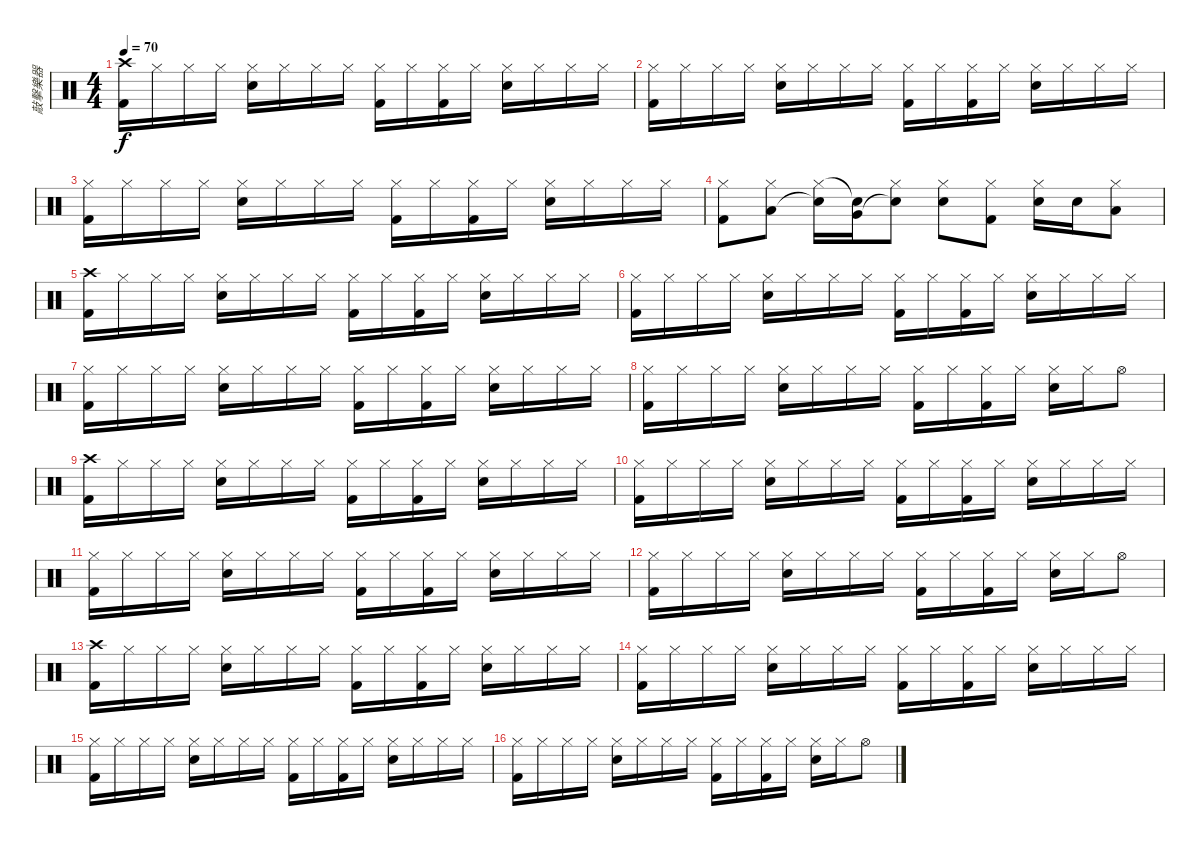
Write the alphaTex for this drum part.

\track ("敲擊樂器" "敲擊樂器") {instrument percussion}
\staff {score}
\articulation defaults
\ts (4 4)
\tempo 70
\clef neutral
\ks c
("Crash high (hit)" "Kick (hit) 2").16{dy f} "Hi-Hat (closed)".16 "Hi-Hat (closed)".16 "Hi-Hat (closed)".16 ("Hi-Hat (closed)" "Snare (hit) 2").16 "Hi-Hat (closed)".16 "Hi-Hat (closed)".16 "Hi-Hat (closed)".16 ("Hi-Hat (closed)" "Kick (hit) 2").16 "Hi-Hat (closed)".16 ("Hi-Hat (closed)" "Kick (hit) 2").16 "Hi-Hat (closed)".16 ("Hi-Hat (closed)" "Snare (hit) 2").16 "Hi-Hat (closed)".16 "Hi-Hat (closed)".16 "Hi-Hat (closed)".16 |
("Hi-Hat (closed)" "Kick (hit) 2").16 "Hi-Hat (closed)".16 "Hi-Hat (closed)".16 "Hi-Hat (closed)".16 ("Hi-Hat (closed)" "Snare (hit) 2").16 "Hi-Hat (closed)".16 "Hi-Hat (closed)".16 "Hi-Hat (closed)".16 ("Hi-Hat (closed)" "Kick (hit) 2").16 "Hi-Hat (closed)".16 ("Hi-Hat (closed)" "Kick (hit) 2").16 "Hi-Hat (closed)".16 ("Hi-Hat (closed)" "Snare (hit) 2").16 "Hi-Hat (closed)".16 "Hi-Hat (closed)".16 "Hi-Hat (closed)".16 |
("Hi-Hat (closed)" "Kick (hit) 2").16 "Hi-Hat (closed)".16 "Hi-Hat (closed)".16 "Hi-Hat (closed)".16 ("Hi-Hat (closed)" "Snare (hit) 2").16 "Hi-Hat (closed)".16 "Hi-Hat (closed)".16 "Hi-Hat (closed)".16 ("Hi-Hat (closed)" "Kick (hit) 2").16 "Hi-Hat (closed)".16 ("Hi-Hat (closed)" "Kick (hit) 2").16 "Hi-Hat (closed)".16 ("Hi-Hat (closed)" "Snare (hit) 2").16 "Hi-Hat (closed)".16 "Hi-Hat (closed)".16 "Hi-Hat (closed)".16 |
("Hi-Hat (closed)" "Kick (hit) 2").8 ("Hi-Hat (closed)" "Low Tom (hit)").8 ("Hi-Hat (closed)" "Snare (hit)"{t}).16 ("Snare (hit)"{t} "Very Low Tom (hit)").16 ("Hi-Hat (closed)" "Snare (hit)"{t}).8 ("Hi-Hat (closed)" "Snare (hit) 2").8 ("Hi-Hat (closed)" "Kick (hit) 2").8 ("Hi-Hat (closed)" "Snare (hit) 2").16 "Snare (hit) 2".16 ("Hi-Hat (closed)" "Low Tom (hit)").8 |
("Crash high (hit)" "Kick (hit) 2").16 "Hi-Hat (closed)".16 "Hi-Hat (closed)".16 "Hi-Hat (closed)".16 ("Hi-Hat (closed)" "Snare (hit) 2").16 "Hi-Hat (closed)".16 "Hi-Hat (closed)".16 "Hi-Hat (closed)".16 ("Hi-Hat (closed)" "Kick (hit) 2").16 "Hi-Hat (closed)".16 ("Hi-Hat (closed)" "Kick (hit) 2").16 "Hi-Hat (closed)".16 ("Hi-Hat (closed)" "Snare (hit) 2").16 "Hi-Hat (closed)".16 "Hi-Hat (closed)".16 "Hi-Hat (closed)".16 |
("Hi-Hat (closed)" "Kick (hit) 2").16 "Hi-Hat (closed)".16 "Hi-Hat (closed)".16 "Hi-Hat (closed)".16 ("Hi-Hat (closed)" "Snare (hit) 2").16 "Hi-Hat (closed)".16 "Hi-Hat (closed)".16 "Hi-Hat (closed)".16 ("Hi-Hat (closed)" "Kick (hit) 2").16 "Hi-Hat (closed)".16 ("Hi-Hat (closed)" "Kick (hit) 2").16 "Hi-Hat (closed)".16 ("Hi-Hat (closed)" "Snare (hit) 2").16 "Hi-Hat (closed)".16 "Hi-Hat (closed)".16 "Hi-Hat (closed)".16 |
("Hi-Hat (closed)" "Kick (hit) 2").16 "Hi-Hat (closed)".16 "Hi-Hat (closed)".16 "Hi-Hat (closed)".16 ("Hi-Hat (closed)" "Snare (hit) 2").16 "Hi-Hat (closed)".16 "Hi-Hat (closed)".16 "Hi-Hat (closed)".16 ("Hi-Hat (closed)" "Kick (hit) 2").16 "Hi-Hat (closed)".16 ("Hi-Hat (closed)" "Kick (hit) 2").16 "Hi-Hat (closed)".16 ("Hi-Hat (closed)" "Snare (hit) 2").16 "Hi-Hat (closed)".16 "Hi-Hat (closed)".16 "Hi-Hat (closed)".16 |
("Hi-Hat (closed)" "Kick (hit) 2").16 "Hi-Hat (closed)".16 "Hi-Hat (closed)".16 "Hi-Hat (closed)".16 ("Hi-Hat (closed)" "Snare (hit) 2").16 "Hi-Hat (closed)".16 "Hi-Hat (closed)".16 "Hi-Hat (closed)".16 ("Hi-Hat (closed)" "Kick (hit) 2").16 "Hi-Hat (closed)".16 ("Hi-Hat (closed)" "Kick (hit) 2").16 "Hi-Hat (closed)".16 ("Hi-Hat (closed)" "Snare (hit) 2").16 "Hi-Hat (closed)".16 "Hi-Hat (open)".8 |
("Crash high (hit)" "Kick (hit) 2").16 "Hi-Hat (closed)".16 "Hi-Hat (closed)".16 "Hi-Hat (closed)".16 ("Hi-Hat (closed)" "Snare (hit) 2").16 "Hi-Hat (closed)".16 "Hi-Hat (closed)".16 "Hi-Hat (closed)".16 ("Hi-Hat (closed)" "Kick (hit) 2").16 "Hi-Hat (closed)".16 ("Hi-Hat (closed)" "Kick (hit) 2").16 "Hi-Hat (closed)".16 ("Hi-Hat (closed)" "Snare (hit) 2").16 "Hi-Hat (closed)".16 "Hi-Hat (closed)".16 "Hi-Hat (closed)".16 |
("Hi-Hat (closed)" "Kick (hit) 2").16 "Hi-Hat (closed)".16 "Hi-Hat (closed)".16 "Hi-Hat (closed)".16 ("Hi-Hat (closed)" "Snare (hit) 2").16 "Hi-Hat (closed)".16 "Hi-Hat (closed)".16 "Hi-Hat (closed)".16 ("Hi-Hat (closed)" "Kick (hit) 2").16 "Hi-Hat (closed)".16 ("Hi-Hat (closed)" "Kick (hit) 2").16 "Hi-Hat (closed)".16 ("Hi-Hat (closed)" "Snare (hit) 2").16 "Hi-Hat (closed)".16 "Hi-Hat (closed)".16 "Hi-Hat (closed)".16 |
("Hi-Hat (closed)" "Kick (hit) 2").16 "Hi-Hat (closed)".16 "Hi-Hat (closed)".16 "Hi-Hat (closed)".16 ("Hi-Hat (closed)" "Snare (hit) 2").16 "Hi-Hat (closed)".16 "Hi-Hat (closed)".16 "Hi-Hat (closed)".16 ("Hi-Hat (closed)" "Kick (hit) 2").16 "Hi-Hat (closed)".16 ("Hi-Hat (closed)" "Kick (hit) 2").16 "Hi-Hat (closed)".16 ("Hi-Hat (closed)" "Snare (hit) 2").16 "Hi-Hat (closed)".16 "Hi-Hat (closed)".16 "Hi-Hat (closed)".16 |
("Hi-Hat (closed)" "Kick (hit) 2").16 "Hi-Hat (closed)".16 "Hi-Hat (closed)".16 "Hi-Hat (closed)".16 ("Hi-Hat (closed)" "Snare (hit) 2").16 "Hi-Hat (closed)".16 "Hi-Hat (closed)".16 "Hi-Hat (closed)".16 ("Hi-Hat (closed)" "Kick (hit) 2").16 "Hi-Hat (closed)".16 ("Hi-Hat (closed)" "Kick (hit) 2").16 "Hi-Hat (closed)".16 ("Hi-Hat (closed)" "Snare (hit) 2").16 "Hi-Hat (closed)".16 "Hi-Hat (open)".8 |
("Crash high (hit)" "Kick (hit) 2").16 "Hi-Hat (closed)".16 "Hi-Hat (closed)".16 "Hi-Hat (closed)".16 ("Hi-Hat (closed)" "Snare (hit) 2").16 "Hi-Hat (closed)".16 "Hi-Hat (closed)".16 "Hi-Hat (closed)".16 ("Hi-Hat (closed)" "Kick (hit) 2").16 "Hi-Hat (closed)".16 ("Hi-Hat (closed)" "Kick (hit) 2").16 "Hi-Hat (closed)".16 ("Hi-Hat (closed)" "Snare (hit) 2").16 "Hi-Hat (closed)".16 "Hi-Hat (closed)".16 "Hi-Hat (closed)".16 |
("Hi-Hat (closed)" "Kick (hit) 2").16 "Hi-Hat (closed)".16 "Hi-Hat (closed)".16 "Hi-Hat (closed)".16 ("Hi-Hat (closed)" "Snare (hit) 2").16 "Hi-Hat (closed)".16 "Hi-Hat (closed)".16 "Hi-Hat (closed)".16 ("Hi-Hat (closed)" "Kick (hit) 2").16 "Hi-Hat (closed)".16 ("Hi-Hat (closed)" "Kick (hit) 2").16 "Hi-Hat (closed)".16 ("Hi-Hat (closed)" "Snare (hit) 2").16 "Hi-Hat (closed)".16 "Hi-Hat (closed)".16 "Hi-Hat (closed)".16 |
("Hi-Hat (closed)" "Kick (hit) 2").16 "Hi-Hat (closed)".16 "Hi-Hat (closed)".16 "Hi-Hat (closed)".16 ("Hi-Hat (closed)" "Snare (hit) 2").16 "Hi-Hat (closed)".16 "Hi-Hat (closed)".16 "Hi-Hat (closed)".16 ("Hi-Hat (closed)" "Kick (hit) 2").16 "Hi-Hat (closed)".16 ("Hi-Hat (closed)" "Kick (hit) 2").16 "Hi-Hat (closed)".16 ("Hi-Hat (closed)" "Snare (hit) 2").16 "Hi-Hat (closed)".16 "Hi-Hat (closed)".16 "Hi-Hat (closed)".16 |
("Hi-Hat (closed)" "Kick (hit) 2").16 "Hi-Hat (closed)".16 "Hi-Hat (closed)".16 "Hi-Hat (closed)".16 ("Hi-Hat (closed)" "Snare (hit) 2").16 "Hi-Hat (closed)".16 "Hi-Hat (closed)".16 "Hi-Hat (closed)".16 ("Hi-Hat (closed)" "Kick (hit) 2").16 "Hi-Hat (closed)".16 ("Hi-Hat (closed)" "Kick (hit) 2").16 "Hi-Hat (closed)".16 ("Hi-Hat (closed)" "Snare (hit) 2").16 "Hi-Hat (closed)".16 "Hi-Hat (open)".8
